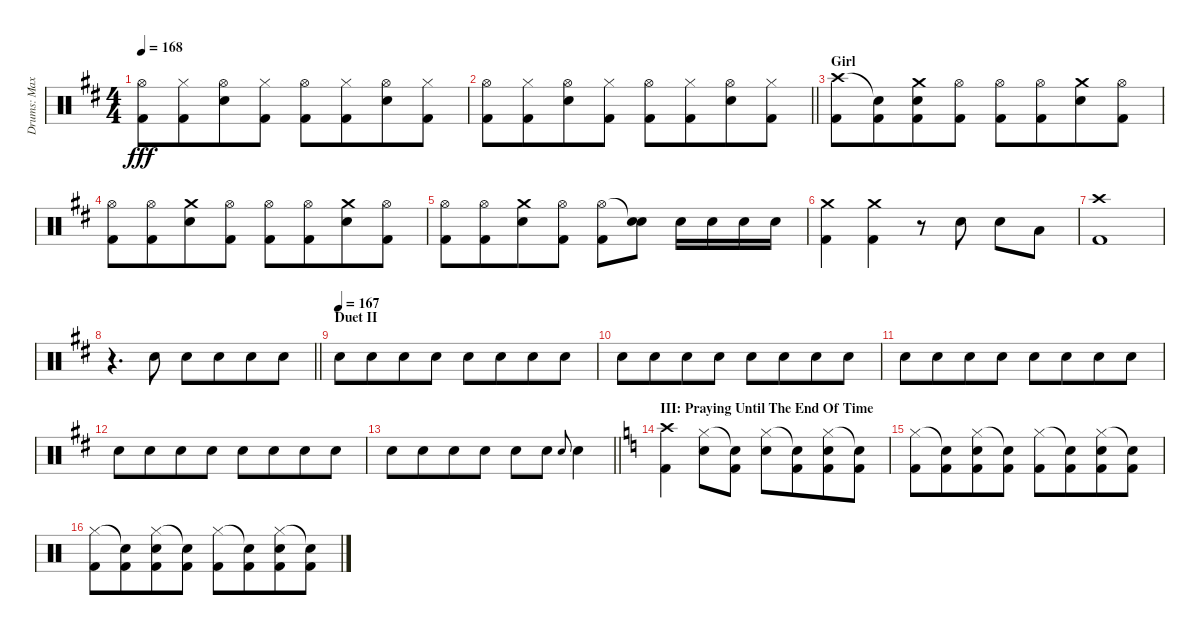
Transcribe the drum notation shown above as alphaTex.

\track ("Drums: Max" "Drums: Max") {instrument percussion}
\staff {score}
\articulation defaults
\ts (4 4)
\tempo 168
\clef neutral
\ks d
("Hi-Hat (open)" "Kick (hit) 2").8{dy fff} ("Hi-Hat (closed)" "Kick (hit) 2").8{beam merge} ("Hi-Hat (open)" "Electric Snare (hit)").8 ("Hi-Hat (closed)" "Kick (hit) 2").8 ("Hi-Hat (open)" "Kick (hit) 2").8 ("Hi-Hat (closed)" "Kick (hit) 2").8{beam merge} ("Hi-Hat (open)" "Electric Snare (hit)").8 ("Hi-Hat (closed)" "Kick (hit) 2").8 |
\barLineRight lightlight
("Hi-Hat (open)" "Kick (hit) 2").8 ("Hi-Hat (closed)" "Kick (hit) 2").8{beam merge} ("Hi-Hat (open)" "Electric Snare (hit)").8 ("Hi-Hat (closed)" "Kick (hit) 2").8 ("Hi-Hat (open)" "Kick (hit) 2").8 ("Hi-Hat (closed)" "Kick (hit) 2").8{beam merge} ("Hi-Hat (open)" "Electric Snare (hit)").8 ("Hi-Hat (closed)" "Kick (hit) 2").8 |
\section ("" "Girl")
("Crash high (hit)" "Kick (hit) 2").8 ("Snare (hit)"{t} "Kick (hit) 2").8{beam merge} ("Crash medium (hit)" "Electric Snare (hit)" "Kick (hit) 2").8 ("Hi-Hat (open)" "Kick (hit) 2").8 ("Hi-Hat (open)" "Kick (hit) 2").8 ("Hi-Hat (open)" "Kick (hit) 2").8{beam merge} ("Crash medium (hit)" "Electric Snare (hit)").8 ("Hi-Hat (open)" "Kick (hit) 2").8 |
("Hi-Hat (open)" "Kick (hit) 2").8 ("Hi-Hat (open)" "Kick (hit) 2").8{beam merge} ("Crash medium (hit)" "Electric Snare (hit)").8 ("Hi-Hat (open)" "Kick (hit) 2").8 ("Hi-Hat (open)" "Kick (hit) 2").8 ("Hi-Hat (open)" "Kick (hit) 2").8{beam merge} ("Crash medium (hit)" "Electric Snare (hit)").8 ("Hi-Hat (open)" "Kick (hit) 2").8 |
("Hi-Hat (open)" "Kick (hit) 2").8 ("Hi-Hat (open)" "Kick (hit) 2").8{beam merge} ("Crash medium (hit)" "Electric Snare (hit)").8 ("Hi-Hat (open)" "Kick (hit) 2").8 ("Hi-Hat (open)" "Kick (hit) 2").8{beam merge} ("Snare (hit)"{t} "Electric Snare (hit)").8 "Electric Snare (hit)".16 "Electric Snare (hit)".16 "Electric Snare (hit)".16 "Electric Snare (hit)".16 |
("Crash medium (hit)" "Kick (hit) 2").4{beam merge} ("Crash medium (hit)" "Kick (hit) 2").4 r.8 "Electric Snare (hit)".8 "Electric Snare (hit)".8 "Low Tom (hit)".8 |
("Crash high (hit)" "Kick (hit) 2").1 |
\barLineRight lightlight
r.4{d} "Electric Snare (hit)".8 "Electric Snare (hit)".8 "Electric Snare (hit)".8{beam merge} "Electric Snare (hit)".8 "Electric Snare (hit)".8 |
\section ("" "Duet II")
\tempo (167)
"Electric Snare (hit)".8 "Electric Snare (hit)".8{beam merge} "Electric Snare (hit)".8 "Electric Snare (hit)".8 "Electric Snare (hit)".8 "Electric Snare (hit)".8{beam merge} "Electric Snare (hit)".8 "Electric Snare (hit)".8 |
"Electric Snare (hit)".8 "Electric Snare (hit)".8{beam merge} "Electric Snare (hit)".8 "Electric Snare (hit)".8 "Electric Snare (hit)".8 "Electric Snare (hit)".8{beam merge} "Electric Snare (hit)".8 "Electric Snare (hit)".8 |
"Electric Snare (hit)".8 "Electric Snare (hit)".8{beam merge} "Electric Snare (hit)".8 "Electric Snare (hit)".8 "Electric Snare (hit)".8 "Electric Snare (hit)".8{beam merge} "Electric Snare (hit)".8 "Electric Snare (hit)".8 |
"Electric Snare (hit)".8 "Electric Snare (hit)".8{beam merge} "Electric Snare (hit)".8 "Electric Snare (hit)".8 "Electric Snare (hit)".8 "Electric Snare (hit)".8{beam merge} "Electric Snare (hit)".8 "Electric Snare (hit)".8 |
\barLineRight lightlight "Electric Snare (hit)".8 "Electric Snare (hit)".8{beam merge} "Electric Snare (hit)".8 "Electric Snare (hit)".8 "Electric Snare (hit)".8 "Electric Snare (hit)".8 "Snare (hit) 2".8{gr onbeat beam merge} "Electric Snare (hit)".4
|
\section ("" "III: Praying Until The End Of Time")
\ks c
("Crash high (hit)" "Kick (hit) 2").4 ("Hi-Hat (closed)" "Electric Snare (hit)").8 ("Snare (hit)"{t} "Kick (hit) 2").8 ("Hi-Hat (closed)" "Electric Snare (hit)").8 ("Snare (hit)"{t} "Kick (hit) 2").8{beam merge} ("Hi-Hat (closed)" "Electric Snare (hit)" "Kick (hit) 2").8 ("Snare (hit)"{t} "Kick (hit) 2").8 |
("Hi-Hat (closed)" "Kick (hit) 2").8 ("Snare (hit)"{t} "Kick (hit) 2").8{beam merge} ("Hi-Hat (closed)" "Electric Snare (hit)" "Kick (hit) 2").8 ("Snare (hit)"{t} "Kick (hit) 2").8 ("Hi-Hat (closed)" "Kick (hit) 2").8 ("Snare (hit)"{t} "Kick (hit) 2").8{beam merge} ("Hi-Hat (closed)" "Electric Snare (hit)" "Kick (hit) 2").8 ("Snare (hit)"{t} "Kick (hit) 2").8 |
("Hi-Hat (closed)" "Kick (hit) 2").8 ("Snare (hit)"{t} "Kick (hit) 2").8{beam merge} ("Hi-Hat (closed)" "Electric Snare (hit)" "Kick (hit) 2").8 ("Snare (hit)"{t} "Kick (hit) 2").8 ("Hi-Hat (closed)" "Kick (hit) 2").8 ("Snare (hit)"{t} "Kick (hit) 2").8{beam merge} ("Hi-Hat (closed)" "Electric Snare (hit)" "Kick (hit) 2").8 ("Snare (hit)"{t} "Kick (hit) 2").8
